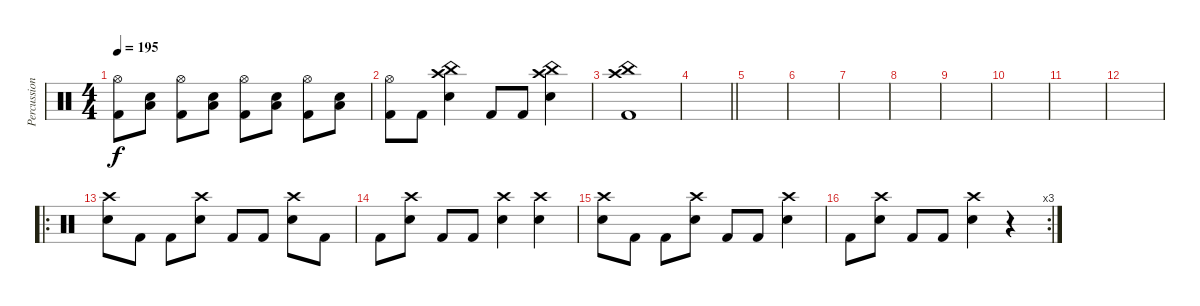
\track ("Percussion" "Percussion") {instrument percussion}
\staff {score}
\articulation defaults
\ts (4 4)
\tempo 195
\clef neutral
\ks c
("Hi-Hat (open)" "Kick (hit) 2").8{dy f} ("Low Floor Tom (hit)" "Snare (hit) 2").8 ("Hi-Hat (open)" "Kick (hit) 2").8 ("Low Floor Tom (hit)" "Snare (hit) 2").8 ("Hi-Hat (open)" "Kick (hit) 2").8 ("Low Floor Tom (hit)" "Snare (hit) 2").8 ("Hi-Hat (open)" "Kick (hit) 2").8 ("Low Floor Tom (hit)" "Snare (hit) 2").8 |
("Hi-Hat (open)" "Kick (hit) 2").8 "Kick (hit) 2".8 ("Crash high (hit)" "China (hit)" "Snare (hit) 2").4 "Kick (hit) 2".8 "Kick (hit) 2".8 ("Crash high (hit)" "China (hit)" "Snare (hit) 2").4 |
("Crash high (hit)" "China (hit)" "Kick (hit) 2").1 |
\barLineRight lightlight
|
\section ("" "")
|
|
|
|
|
|
|
|
\ro
\section ("" "")
("Crash high (hit)" "Snare (hit) 2").8 "Kick (hit) 2".8 "Kick (hit) 2".8 ("Crash high (hit)" "Snare (hit) 2").8 "Kick (hit) 2".8 "Kick (hit) 2".8 ("Crash high (hit)" "Snare (hit) 2").8 "Kick (hit) 2".8 |
"Kick (hit) 2".8 ("Crash high (hit)" "Snare (hit) 2").8 "Kick (hit) 2".8 "Kick (hit) 2".8 ("Crash high (hit)" "Snare (hit) 2").4 ("Crash high (hit)" "Snare (hit) 2").4 |
("Crash high (hit)" "Snare (hit) 2").8 "Kick (hit) 2".8 "Kick (hit) 2".8 ("Crash high (hit)" "Snare (hit) 2").8 "Kick (hit) 2".8 "Kick (hit) 2".8 ("Crash high (hit)" "Snare (hit) 2").4 |
\rc 3 "Kick (hit) 2".8
("Crash high (hit)" "Snare (hit) 2").8 "Kick (hit) 2".8 "Kick (hit) 2".8 ("Crash high (hit)" "Snare (hit) 2").4 r.4
